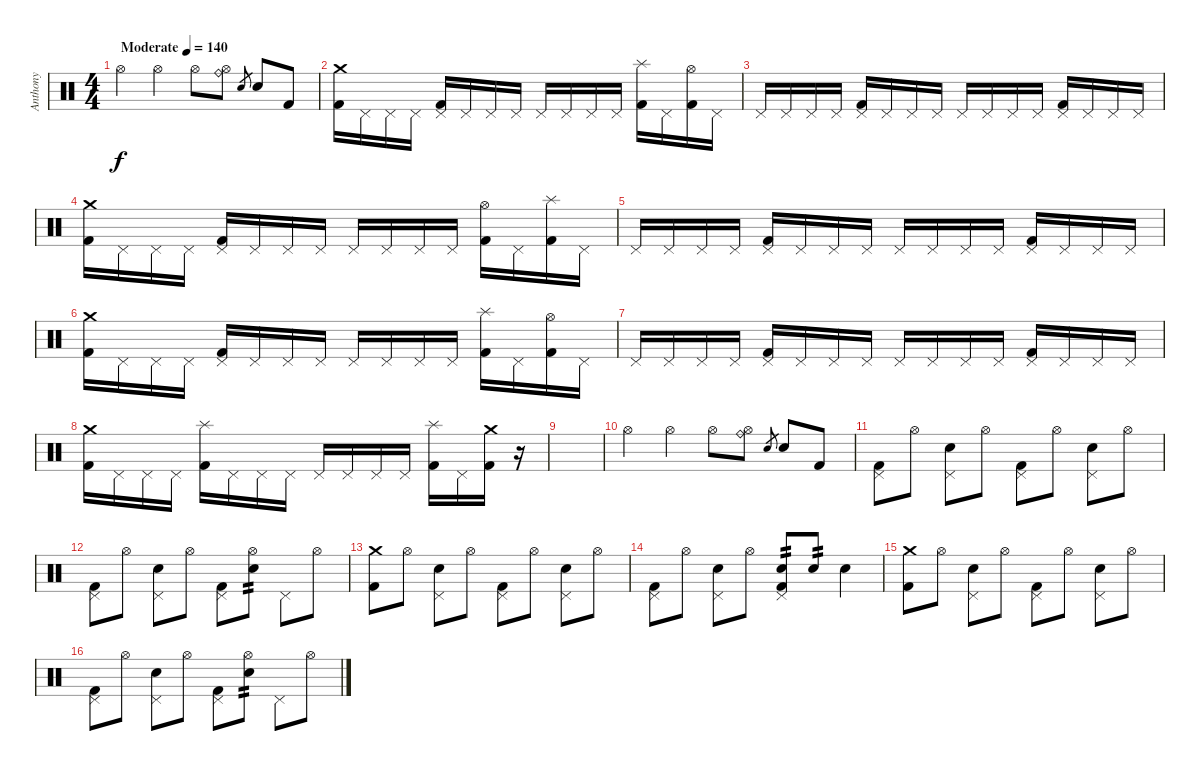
\track ("Anthony" "Anthony") {instrument percussion}
\staff {score}
\articulation defaults
\ts (4 4)
\tempo (140 "Moderate")
\clef neutral
\ks c "Hi-Hat (open)".4{dy f} "Hi-Hat (open)".4 "Hi-Hat (open)".8
("Hi-Hat (open)" "Ride (bell)").8 "Snare (hit) 2".8{gr} "Snare (hit) 2".8 "Kick (hit) 2".8 |
("Crash medium (hit)" "Kick (hit) 2").16 "Pedal Hi-Hat (hit)".16 "Pedal Hi-Hat (hit)".16 "Pedal Hi-Hat (hit)".16 ("Pedal Hi-Hat (hit)" "Kick (hit) 2").16 "Pedal Hi-Hat (hit)".16 "Pedal Hi-Hat (hit)".16 "Pedal Hi-Hat (hit)".16 "Pedal Hi-Hat (hit)".16 "Pedal Hi-Hat (hit)".16 "Pedal Hi-Hat (hit)".16 "Pedal Hi-Hat (hit)".16 ("Splash (hit)" "Kick (hit) 2").16 "Pedal Hi-Hat (hit)".16 ("Hi-Hat (open)" "Kick (hit) 2").16 "Pedal Hi-Hat (hit)".16 |
"Pedal Hi-Hat (hit)".16 "Pedal Hi-Hat (hit)".16 "Pedal Hi-Hat (hit)".16 "Pedal Hi-Hat (hit)".16 ("Pedal Hi-Hat (hit)" "Kick (hit) 2").16 "Pedal Hi-Hat (hit)".16 "Pedal Hi-Hat (hit)".16 "Pedal Hi-Hat (hit)".16 "Pedal Hi-Hat (hit)".16 "Pedal Hi-Hat (hit)".16 "Pedal Hi-Hat (hit)".16 "Pedal Hi-Hat (hit)".16 ("Pedal Hi-Hat (hit)" "Kick (hit) 2").16 "Pedal Hi-Hat (hit)".16 "Pedal Hi-Hat (hit)".16 "Pedal Hi-Hat (hit)".16 |
("Crash medium (hit)" "Kick (hit) 2").16 "Pedal Hi-Hat (hit)".16 "Pedal Hi-Hat (hit)".16 "Pedal Hi-Hat (hit)".16 ("Pedal Hi-Hat (hit)" "Kick (hit) 2").16 "Pedal Hi-Hat (hit)".16 "Pedal Hi-Hat (hit)".16 "Pedal Hi-Hat (hit)".16 "Pedal Hi-Hat (hit)".16 "Pedal Hi-Hat (hit)".16 "Pedal Hi-Hat (hit)".16 "Pedal Hi-Hat (hit)".16 ("Hi-Hat (open)" "Kick (hit) 2").16 "Pedal Hi-Hat (hit)".16 ("Splash (hit)" "Kick (hit) 2").16 "Pedal Hi-Hat (hit)".16 |
"Pedal Hi-Hat (hit)".16 "Pedal Hi-Hat (hit)".16 "Pedal Hi-Hat (hit)".16 "Pedal Hi-Hat (hit)".16 ("Pedal Hi-Hat (hit)" "Kick (hit) 2").16 "Pedal Hi-Hat (hit)".16 "Pedal Hi-Hat (hit)".16 "Pedal Hi-Hat (hit)".16 "Pedal Hi-Hat (hit)".16 "Pedal Hi-Hat (hit)".16 "Pedal Hi-Hat (hit)".16 "Pedal Hi-Hat (hit)".16 ("Pedal Hi-Hat (hit)" "Kick (hit) 2").16 "Pedal Hi-Hat (hit)".16 "Pedal Hi-Hat (hit)".16 "Pedal Hi-Hat (hit)".16 |
("Crash medium (hit)" "Kick (hit) 2").16 "Pedal Hi-Hat (hit)".16 "Pedal Hi-Hat (hit)".16 "Pedal Hi-Hat (hit)".16 ("Pedal Hi-Hat (hit)" "Kick (hit) 2").16 "Pedal Hi-Hat (hit)".16 "Pedal Hi-Hat (hit)".16 "Pedal Hi-Hat (hit)".16 "Pedal Hi-Hat (hit)".16 "Pedal Hi-Hat (hit)".16 "Pedal Hi-Hat (hit)".16 "Pedal Hi-Hat (hit)".16 ("Splash (hit)" "Kick (hit) 2").16 "Pedal Hi-Hat (hit)".16 ("Hi-Hat (open)" "Kick (hit) 2").16 "Pedal Hi-Hat (hit)".16 |
"Pedal Hi-Hat (hit)".16 "Pedal Hi-Hat (hit)".16 "Pedal Hi-Hat (hit)".16 "Pedal Hi-Hat (hit)".16 ("Pedal Hi-Hat (hit)" "Kick (hit) 2").16 "Pedal Hi-Hat (hit)".16 "Pedal Hi-Hat (hit)".16 "Pedal Hi-Hat (hit)".16 "Pedal Hi-Hat (hit)".16 "Pedal Hi-Hat (hit)".16 "Pedal Hi-Hat (hit)".16 "Pedal Hi-Hat (hit)".16 ("Pedal Hi-Hat (hit)" "Kick (hit) 2").16 "Pedal Hi-Hat (hit)".16 "Pedal Hi-Hat (hit)".16 "Pedal Hi-Hat (hit)".16 |
("Crash medium (hit)" "Kick (hit) 2").16 "Pedal Hi-Hat (hit)".16 "Pedal Hi-Hat (hit)".16 "Pedal Hi-Hat (hit)".16 ("Splash (hit)" "Kick (hit) 2").16 "Pedal Hi-Hat (hit)".16 "Pedal Hi-Hat (hit)".16 "Pedal Hi-Hat (hit)".16 "Pedal Hi-Hat (hit)".16 "Pedal Hi-Hat (hit)".16 "Pedal Hi-Hat (hit)".16 "Pedal Hi-Hat (hit)".16 ("Splash (hit)" "Kick (hit) 2").16 "Pedal Hi-Hat (hit)".16 ("Crash medium (hit)" "Kick (hit) 2").16 r.16 |
|
"Hi-Hat (open)".4 "Hi-Hat (open)".4 "Hi-Hat (open)".8 ("Hi-Hat (open)" "Ride (bell)").8 "Snare (hit) 2".8{gr} "Snare (hit) 2".8 "Kick (hit) 2".8 |
("Pedal Hi-Hat (hit)" "Kick (hit) 2").8 "Hi-Hat (open)".8 ("Pedal Hi-Hat (hit)" "Snare (hit) 2").8 "Hi-Hat (open)".8 ("Pedal Hi-Hat (hit)" "Kick (hit) 2").8 "Hi-Hat (open)".8 ("Pedal Hi-Hat (hit)" "Snare (hit) 2").8 "Hi-Hat (open)".8 |
("Pedal Hi-Hat (hit)" "Kick (hit) 2").8 "Hi-Hat (open)".8 ("Pedal Hi-Hat (hit)" "Snare (hit) 2").8 "Hi-Hat (open)".8 ("Pedal Hi-Hat (hit)" "Kick (hit) 2").8 ("Hi-Hat (open)" "Snare (hit) 2").8{tp 2} "Pedal Hi-Hat (hit)".8 "Hi-Hat (open)".8 |
("Crash medium (hit)" "Kick (hit) 2").8 "Hi-Hat (open)".8 ("Pedal Hi-Hat (hit)" "Snare (hit) 2").8 "Hi-Hat (open)".8 ("Pedal Hi-Hat (hit)" "Kick (hit) 2").8 "Hi-Hat (open)".8 ("Pedal Hi-Hat (hit)" "Snare (hit) 2").8 "Hi-Hat (open)".8 |
("Pedal Hi-Hat (hit)" "Kick (hit) 2").8 "Hi-Hat (open)".8 ("Pedal Hi-Hat (hit)" "Snare (hit) 2").8 "Hi-Hat (open)".8 ("Pedal Hi-Hat (hit)" "Snare (hit) 2" "Kick (hit) 2").8{tp 2} "Snare (hit) 2".8{tp 2} "Snare (hit) 2".4 |
("Crash medium (hit)" "Kick (hit) 2").8 "Hi-Hat (open)".8 ("Pedal Hi-Hat (hit)" "Snare (hit) 2").8 "Hi-Hat (open)".8 ("Pedal Hi-Hat (hit)" "Kick (hit) 2").8 "Hi-Hat (open)".8 ("Pedal Hi-Hat (hit)" "Snare (hit) 2").8 "Hi-Hat (open)".8 |
("Pedal Hi-Hat (hit)" "Kick (hit) 2").8 "Hi-Hat (open)".8 ("Pedal Hi-Hat (hit)" "Snare (hit) 2").8 "Hi-Hat (open)".8 ("Pedal Hi-Hat (hit)" "Kick (hit) 2").8 ("Hi-Hat (open)" "Snare (hit) 2").8{tp 2} "Pedal Hi-Hat (hit)".8 "Hi-Hat (open)".8
